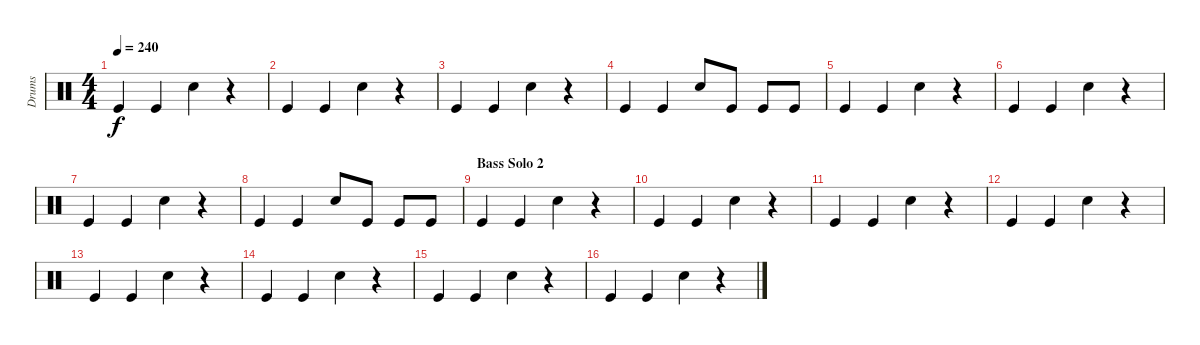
\track ("Drums" "Drums") {instrument percussion}
\staff {score}
\articulation defaults
\ts (4 4)
\tempo 240
\clef neutral
\ks c "Kick (hit)".4{dy f} "Kick (hit)".4 "Snare (hit) 2".4
r.4 |
"Kick (hit)".4 "Kick (hit)".4 "Snare (hit) 2".4 r.4 |
"Kick (hit)".4 "Kick (hit)".4 "Snare (hit) 2".4 r.4 |
"Kick (hit)".4 "Kick (hit)".4 "Snare (hit) 2".8 "Kick (hit)".8 "Kick (hit)".8 "Kick (hit)".8 |
"Kick (hit)".4 "Kick (hit)".4 "Snare (hit) 2".4 r.4 |
"Kick (hit)".4 "Kick (hit)".4 "Snare (hit) 2".4 r.4 |
"Kick (hit)".4 "Kick (hit)".4 "Snare (hit) 2".4 r.4 |
"Kick (hit)".4 "Kick (hit)".4 "Snare (hit) 2".8 "Kick (hit)".8 "Kick (hit)".8 "Kick (hit)".8 |
\section ("" "Bass Solo 2")
"Kick (hit)".4 "Kick (hit)".4 "Snare (hit) 2".4 r.4 |
"Kick (hit)".4 "Kick (hit)".4 "Snare (hit) 2".4 r.4 |
"Kick (hit)".4 "Kick (hit)".4 "Snare (hit) 2".4 r.4 |
"Kick (hit)".4 "Kick (hit)".4 "Snare (hit) 2".4 r.4 |
"Kick (hit)".4 "Kick (hit)".4 "Snare (hit) 2".4 r.4 |
"Kick (hit)".4 "Kick (hit)".4 "Snare (hit) 2".4 r.4 |
"Kick (hit)".4 "Kick (hit)".4 "Snare (hit) 2".4 r.4 |
"Kick (hit)".4 "Kick (hit)".4 "Snare (hit) 2".4 r.4
